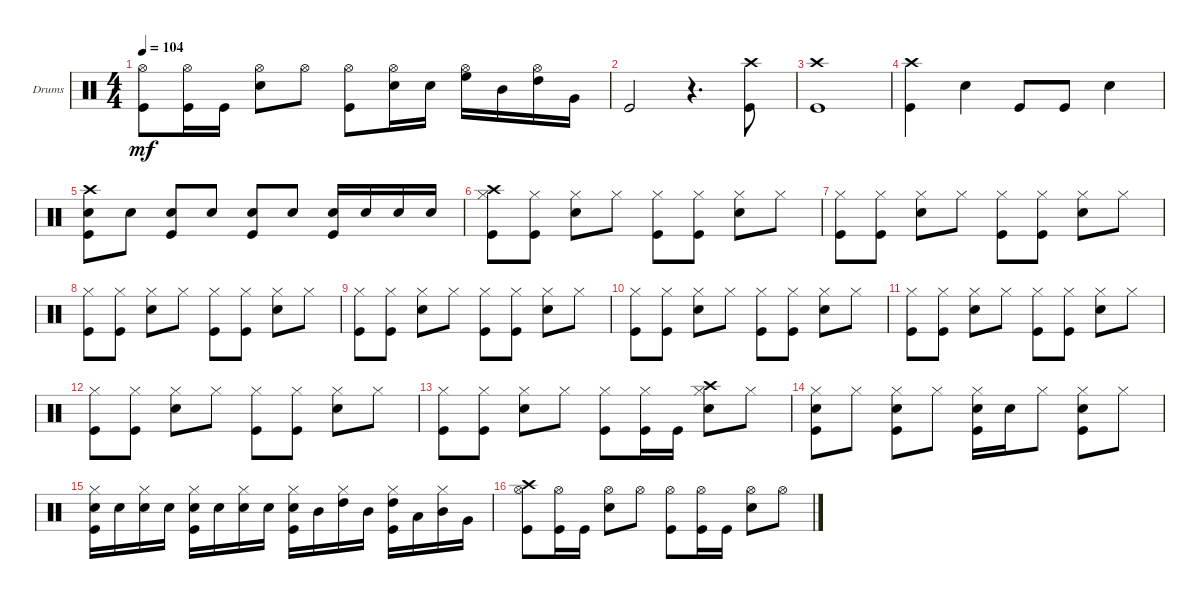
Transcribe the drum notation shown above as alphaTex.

\defaultSystemsLayout 4
\bracketExtendMode groupsimilarinstruments
\firstSystemTrackNameOrientation horizontal
\otherSystemsTrackNameOrientation horizontal
\track ("Drum" "Drums") {instrument percussion}
\staff {score}
\articulation defaults
\ts (4 4)
\tempo 104
\clef neutral
\ks c
("Kick (hit)" "Hi-Hat (open)").8{dy mf} ("Kick (hit)" "Hi-Hat (open)").16 "Kick (hit)".16 ("Snare (hit) 2" "Hi-Hat (open)").8 "Hi-Hat (open)".8 ("Kick (hit)" "Hi-Hat (open)").8 ("Hi-Hat (open)" "Snare (hit) 2").16 "Snare (hit) 2".16 ("High Floor Tom (hit)" "Hi-Hat (open)").16 "Mid Tom (hit)".16 ("High Tom (hit)" "Hi-Hat (open)").16 "Very Low Tom (hit)".16 |
"Kick (hit)".2 r.4{d} ("Crash high (hit)" "Kick (hit)").8 |
("Kick (hit)" "Crash high (hit)").1 |
("Crash high (hit)" "Kick (hit)").4 "Snare (hit) 2".4 "Kick (hit)".8 "Kick (hit)".8 "Snare (hit) 2".4 |
("Crash high (hit)" "Snare (hit) 2" "Kick (hit)").8 "Snare (hit) 2".8 ("Kick (hit)" "Snare (hit) 2").8 "Snare (hit) 2".8 ("Kick (hit)" "Snare (hit) 2").8 "Snare (hit) 2".8 ("Snare (hit) 2" "Kick (hit)").16 "Snare (hit) 2".16 "Snare (hit) 2".16 "Snare (hit) 2".16 |
("Hi-Hat (closed)" "Crash high (hit)" "Kick (hit)").8 ("Kick (hit)" "Hi-Hat (closed)").8 ("Hi-Hat (closed)" "Snare (hit) 2").8 "Hi-Hat (closed)".8 ("Hi-Hat (closed)" "Kick (hit)").8 ("Kick (hit)" "Hi-Hat (closed)").8 ("Hi-Hat (closed)" "Snare (hit) 2").8 "Hi-Hat (closed)".8 |
("Hi-Hat (closed)" "Kick (hit)").8 ("Kick (hit)" "Hi-Hat (closed)").8 ("Hi-Hat (closed)" "Snare (hit) 2").8 "Hi-Hat (closed)".8 ("Kick (hit)" "Hi-Hat (closed)").8 ("Hi-Hat (closed)" "Kick (hit)").8 ("Hi-Hat (closed)" "Snare (hit) 2").8 "Hi-Hat (closed)".8 |
("Kick (hit)" "Hi-Hat (closed)").8 ("Hi-Hat (closed)" "Kick (hit)").8 ("Hi-Hat (closed)" "Snare (hit) 2").8 "Hi-Hat (closed)".8 ("Kick (hit)" "Hi-Hat (closed)").8 ("Kick (hit)" "Hi-Hat (closed)").8 ("Hi-Hat (closed)" "Snare (hit) 2").8 "Hi-Hat (closed)".8 |
("Hi-Hat (closed)" "Kick (hit)").8 ("Kick (hit)" "Hi-Hat (closed)").8 ("Hi-Hat (closed)" "Snare (hit) 2").8 "Hi-Hat (closed)".8 ("Hi-Hat (closed)" "Kick (hit)").8 ("Kick (hit)" "Hi-Hat (closed)").8 ("Hi-Hat (closed)" "Snare (hit) 2").8 "Hi-Hat (closed)".8 |
("Kick (hit)" "Hi-Hat (closed)").8 ("Kick (hit)" "Hi-Hat (closed)").8 ("Snare (hit) 2" "Hi-Hat (closed)").8 "Hi-Hat (closed)".8 ("Hi-Hat (closed)" "Kick (hit)").8 ("Hi-Hat (closed)" "Kick (hit)").8 ("Snare (hit) 2" "Hi-Hat (closed)").8 "Hi-Hat (closed)".8 |
("Kick (hit)" "Hi-Hat (closed)").8 ("Hi-Hat (closed)" "Kick (hit)").8 ("Hi-Hat (closed)" "Snare (hit) 2").8 "Hi-Hat (closed)".8 ("Kick (hit)" "Hi-Hat (closed)").8 ("Hi-Hat (closed)" "Kick (hit)").8 ("Snare (hit) 2" "Hi-Hat (closed)").8 "Hi-Hat (closed)".8 |
("Kick (hit)" "Hi-Hat (closed)").8 ("Hi-Hat (closed)" "Kick (hit)").8 ("Hi-Hat (closed)" "Snare (hit) 2").8 "Hi-Hat (closed)".8 ("Hi-Hat (closed)" "Kick (hit)").8 ("Kick (hit)" "Hi-Hat (closed)").8 ("Hi-Hat (closed)" "Snare (hit) 2").8 "Hi-Hat (closed)".8 |
("Hi-Hat (closed)" "Kick (hit)").8 ("Kick (hit)" "Hi-Hat (closed)").8 ("Hi-Hat (closed)" "Snare (hit) 2").8 "Hi-Hat (closed)".8 ("Hi-Hat (closed)" "Kick (hit)").8 ("Kick (hit)" "Hi-Hat (closed)").16 "Kick (hit)".16 ("Snare (hit) 2" "Hi-Hat (closed)" "Crash high (hit)").8 "Hi-Hat (closed)".8 |
("Kick (hit)" "Hi-Hat (closed)" "Snare (hit) 2").8 "Hi-Hat (closed)".8 ("Snare (hit) 2" "Kick (hit)" "Hi-Hat (closed)").8 "Hi-Hat (closed)".8 ("Kick (hit)" "Snare (hit) 2" "Hi-Hat (closed)").16 "Snare (hit) 2".16 "Hi-Hat (closed)".8 ("Snare (hit) 2" "Kick (hit)" "Hi-Hat (closed)").8 "Hi-Hat (closed)".8 |
("Kick (hit)" "Snare (hit) 2" "Hi-Hat (closed)").16 "Snare (hit) 2".16 ("Hi-Hat (closed)" "Snare (hit) 2").16 "Snare (hit) 2".16 ("Snare (hit) 2" "Kick (hit)" "Hi-Hat (closed)").16 "Snare (hit) 2".16 ("Hi-Hat (closed)" "Snare (hit) 2").16 "Snare (hit) 2".16 ("Kick (hit)" "Hi-Hat (closed)" "Snare (hit) 2").16 "Mid Tom (hit)".16 ("High Tom (hit)" "Hi-Hat (closed)").16 "Mid Tom (hit)".16 ("Hi-Hat (closed)" "Kick (hit)" "High Tom (hit)").16 "Low Tom (hit)".16 ("Hi-Hat (closed)" "Mid Tom (hit)").16 "Very Low Tom (hit)".16 |
("Crash high (hit)" "Hi-Hat (open)" "Kick (hit)").8 ("Kick (hit)" "Hi-Hat (open)").16 "Kick (hit)".16 ("Hi-Hat (open)" "Snare (hit) 2").8 "Hi-Hat (open)".8 ("Kick (hit)" "Hi-Hat (open)").8 ("Hi-Hat (open)" "Kick (hit)").16 "Kick (hit)".16 ("Snare (hit) 2" "Hi-Hat (open)").8 "Hi-Hat (open)".8
